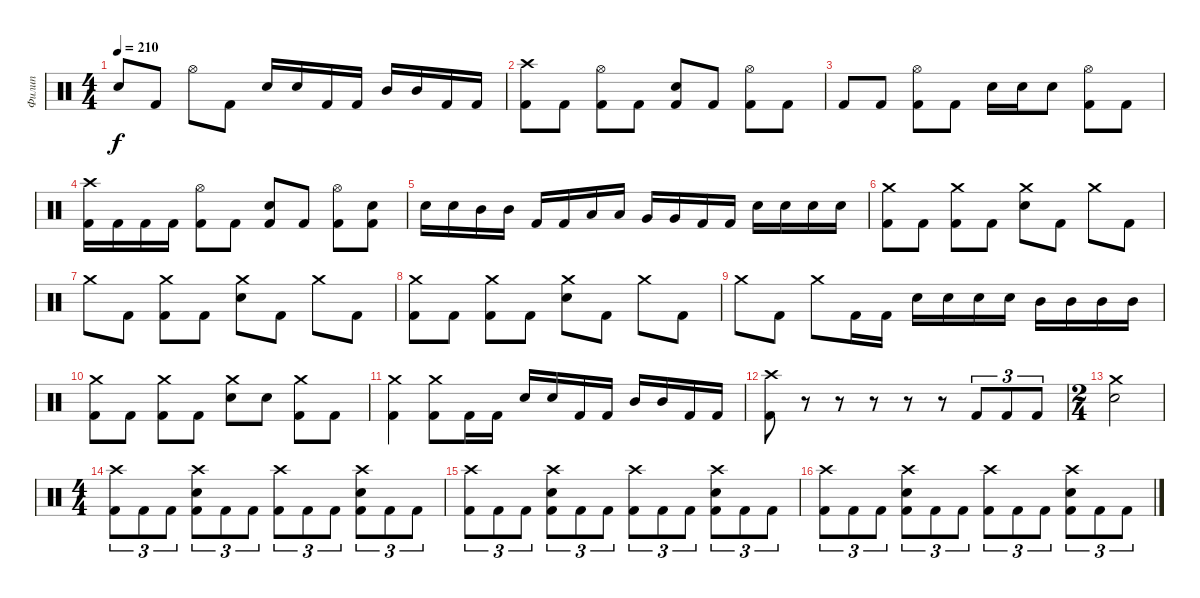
\track ("Филип" "Филип") {instrument percussion}
\staff {score}
\articulation defaults
\ts (4 4)
\tempo 210
\clef neutral
\ks c "Electric Snare (hit)".8{dy f} "Kick (hit) 2".8 "Hi-Hat (open)".8 "Kick (hit) 2".8 "Electric Snare (hit)".16 "Electric Snare (hit)".16 "Kick (hit) 2".16 "Kick (hit) 2".16 "Mid Tom (hit)".16 "Mid Tom (hit)".16 "Kick (hit) 2".16 "Kick (hit) 2".16
|
("Crash high (hit)" "Kick (hit) 2").8 "Kick (hit) 2".8 ("Hi-Hat (open)" "Kick (hit) 2").8 "Kick (hit) 2".8 ("Electric Snare (hit)" "Kick (hit) 2").8 "Kick (hit) 2".8 ("Hi-Hat (open)" "Kick (hit) 2").8 "Kick (hit) 2".8 |
"Kick (hit) 2".8 "Kick (hit) 2".8 ("Hi-Hat (open)" "Kick (hit) 2").8 "Kick (hit) 2".8 "Electric Snare (hit)".16 "Electric Snare (hit)".16 "Electric Snare (hit)".8 ("Hi-Hat (open)" "Kick (hit) 2").8 "Kick (hit) 2".8 |
("Crash high (hit)" "Kick (hit) 2").16 "Kick (hit) 2".16 "Kick (hit) 2".16 "Kick (hit) 2".16 ("Hi-Hat (open)" "Kick (hit) 2").8 "Kick (hit) 2".8 ("Electric Snare (hit)" "Kick (hit) 2").8 "Kick (hit) 2".8 ("Hi-Hat (open)" "Kick (hit) 2").8 ("Electric Snare (hit)" "Kick (hit) 2").8 |
"Electric Snare (hit)".16 "Electric Snare (hit)".16 "Mid Tom (hit)".16 "Mid Tom (hit)".16 "Kick (hit) 2".16 "Kick (hit) 2".16 "Low Tom (hit)".16 "Low Tom (hit)".16 "Very Low Tom (hit)".16 "Very Low Tom (hit)".16 "Kick (hit) 2".16 "Kick (hit) 2".16 "Electric Snare (hit)".16 "Electric Snare (hit)".16 "Electric Snare (hit)".16 "Electric Snare (hit)".16 |
("Crash medium (hit)" "Kick (hit) 2").8 "Kick (hit) 2".8 ("Crash medium (hit)" "Kick (hit) 2").8 "Kick (hit) 2".8 ("Crash medium (hit)" "Electric Snare (hit)").8 "Kick (hit) 2".8 "Crash medium (hit)".8 "Kick (hit) 2".8 |
"Crash medium (hit)".8 "Kick (hit) 2".8 ("Crash medium (hit)" "Kick (hit) 2").8 "Kick (hit) 2".8 ("Crash medium (hit)" "Electric Snare (hit)").8 "Kick (hit) 2".8 "Crash medium (hit)".8 "Kick (hit) 2".8 |
("Crash medium (hit)" "Kick (hit) 2").8 "Kick (hit) 2".8 ("Crash medium (hit)" "Kick (hit) 2").8 "Kick (hit) 2".8 ("Crash medium (hit)" "Electric Snare (hit)").8 "Kick (hit) 2".8 "Crash medium (hit)".8 "Kick (hit) 2".8 |
"Crash medium (hit)".8 "Kick (hit) 2".8 "Crash medium (hit)".8 "Kick (hit) 2".16 "Kick (hit) 2".16 "Electric Snare (hit)".16 "Electric Snare (hit)".16 "Electric Snare (hit)".16 "Electric Snare (hit)".16 "Mid Tom (hit)".16 "Mid Tom (hit)".16 "Mid Tom (hit)".16 "Mid Tom (hit)".16 |
("Crash medium (hit)" "Kick (hit) 2").8 "Kick (hit) 2".8 ("Crash medium (hit)" "Kick (hit) 2").8 "Kick (hit) 2".8 ("Crash medium (hit)" "Electric Snare (hit)").8 "Electric Snare (hit)".8 ("Crash medium (hit)" "Kick (hit) 2").8 "Kick (hit) 2".8 |
("Crash medium (hit)" "Kick (hit) 2").4 ("Crash medium (hit)" "Kick (hit) 2").8 "Kick (hit) 2".16 "Kick (hit) 2".16 "Electric Snare (hit)".16 "Electric Snare (hit)".16 "Kick (hit) 2".16 "Kick (hit) 2".16 "Mid Tom (hit)".16 "Mid Tom (hit)".16 "Kick (hit) 2".16 "Kick (hit) 2".16 |
("Crash high (hit)" "Kick (hit) 2").8 r.8 r.8 r.8 r.8 r.8 "Kick (hit) 2".8{tu (3 2)} "Kick (hit) 2".8{tu (3 2)} "Kick (hit) 2".8{tu (3 2)} |
\ts (2 4)
("Crash medium (hit)" "Electric Snare (hit)").2 |
\ts (4 4)
("Crash high (hit)" "Kick (hit) 2").8{tu (3 2)} "Kick (hit) 2".8{tu (3 2)} "Kick (hit) 2".8{tu (3 2)} ("Crash high (hit)" "Electric Snare (hit)" "Kick (hit) 2").8{tu (3 2)} "Kick (hit) 2".8{tu (3 2)} "Kick (hit) 2".8{tu (3 2)} ("Crash high (hit)" "Kick (hit) 2").8{tu (3 2)} "Kick (hit) 2".8{tu (3 2)} "Kick (hit) 2".8{tu (3 2)} ("Crash high (hit)" "Electric Snare (hit)" "Kick (hit) 2").8{tu (3 2)} "Kick (hit) 2".8{tu (3 2)} "Kick (hit) 2".8{tu (3 2)} |
("Crash high (hit)" "Kick (hit) 2").8{tu (3 2)} "Kick (hit) 2".8{tu (3 2)} "Kick (hit) 2".8{tu (3 2)} ("Crash high (hit)" "Electric Snare (hit)" "Kick (hit) 2").8{tu (3 2)} "Kick (hit) 2".8{tu (3 2)} "Kick (hit) 2".8{tu (3 2)} ("Crash high (hit)" "Kick (hit) 2").8{tu (3 2)} "Kick (hit) 2".8{tu (3 2)} "Kick (hit) 2".8{tu (3 2)} ("Crash high (hit)" "Electric Snare (hit)" "Kick (hit) 2").8{tu (3 2)} "Kick (hit) 2".8{tu (3 2)} "Kick (hit) 2".8{tu (3 2)} |
("Crash high (hit)" "Kick (hit) 2").8{tu (3 2)} "Kick (hit) 2".8{tu (3 2)} "Kick (hit) 2".8{tu (3 2)} ("Crash high (hit)" "Electric Snare (hit)" "Kick (hit) 2").8{tu (3 2)} "Kick (hit) 2".8{tu (3 2)} "Kick (hit) 2".8{tu (3 2)} ("Crash high (hit)" "Kick (hit) 2").8{tu (3 2)} "Kick (hit) 2".8{tu (3 2)} "Kick (hit) 2".8{tu (3 2)} ("Crash high (hit)" "Electric Snare (hit)" "Kick (hit) 2").8{tu (3 2)} "Kick (hit) 2".8{tu (3 2)} "Kick (hit) 2".8{tu (3 2)}
